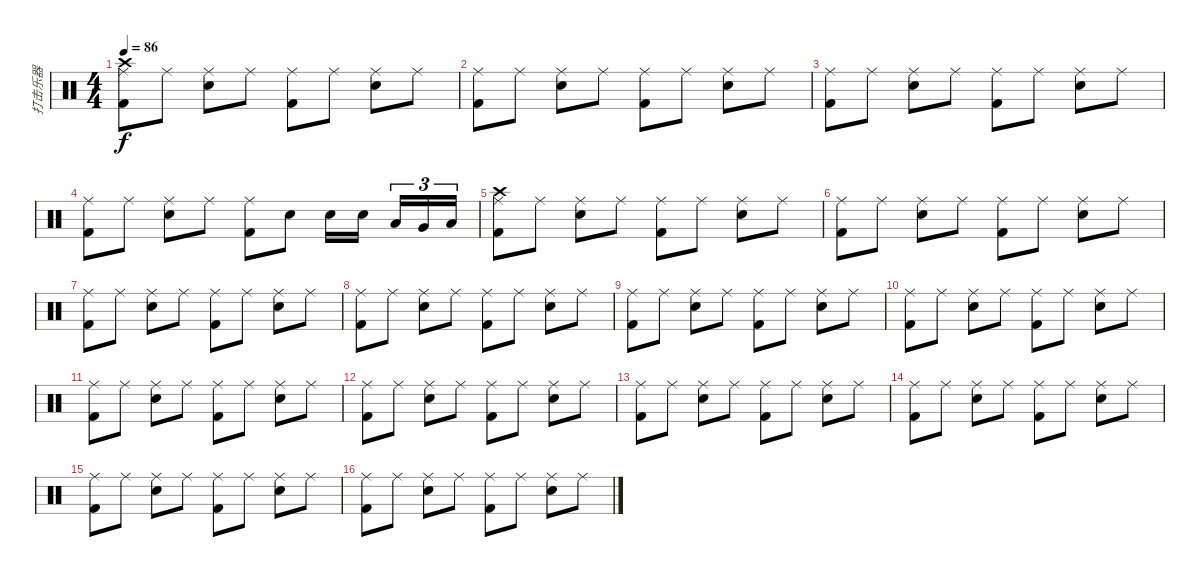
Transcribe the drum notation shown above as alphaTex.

\track ("打击乐器" "打击乐器") {instrument percussion}
\staff {score}
\articulation defaults
\ts (4 4)
\tempo 86
\clef neutral
\ks c
("Ride (middle)" "Kick (hit) 2" "Crash high (hit)").8{dy f} "Ride (middle)".8 ("Ride (middle)" "Snare (hit) 2").8 "Ride (middle)".8 ("Ride (middle)" "Kick (hit) 2").8 "Ride (middle)".8 ("Ride (middle)" "Snare (hit) 2").8 "Ride (middle)".8 |
("Ride (middle)" "Kick (hit) 2").8 "Ride (middle)".8 ("Ride (middle)" "Snare (hit) 2").8 "Ride (middle)".8 ("Ride (middle)" "Kick (hit) 2").8 "Ride (middle)".8 ("Ride (middle)" "Snare (hit) 2").8 "Ride (middle)".8 |
("Ride (middle)" "Kick (hit) 2").8 "Ride (middle)".8 ("Ride (middle)" "Snare (hit) 2").8 "Ride (middle)".8 ("Ride (middle)" "Kick (hit) 2").8 "Ride (middle)".8 ("Ride (middle)" "Snare (hit) 2").8 "Ride (middle)".8 |
("Ride (middle)" "Kick (hit) 2").8 "Ride (middle)".8 ("Ride (middle)" "Snare (hit) 2").8 "Ride (middle)".8 ("Ride (middle)" "Kick (hit) 2").8 "Electric Snare (hit)".8 "Electric Snare (hit)".16 "Electric Snare (hit)".16{beam splitsecondary} "Low Tom (hit)".16{tu (3 2)} "Very Low Tom (hit)".16{tu (3 2)} "Low Floor Tom (hit)".16{tu (3 2)} |
("Ride (middle)" "Kick (hit) 2" "Crash high (hit)").8 "Ride (middle)".8 ("Ride (middle)" "Snare (hit) 2").8 "Ride (middle)".8 ("Ride (middle)" "Kick (hit) 2").8 "Ride (middle)".8 ("Ride (middle)" "Snare (hit) 2").8 "Ride (middle)".8 |
("Ride (middle)" "Kick (hit) 2").8 "Ride (middle)".8 ("Ride (middle)" "Snare (hit) 2").8 "Ride (middle)".8 ("Ride (middle)" "Kick (hit) 2").8 "Ride (middle)".8 ("Ride (middle)" "Snare (hit) 2").8 "Ride (middle)".8 |
("Ride (middle)" "Kick (hit) 2").8 "Ride (middle)".8 ("Ride (middle)" "Snare (hit) 2").8 "Ride (middle)".8 ("Ride (middle)" "Kick (hit) 2").8 "Ride (middle)".8 ("Ride (middle)" "Snare (hit) 2").8 "Ride (middle)".8 |
("Ride (middle)" "Kick (hit) 2").8 "Ride (middle)".8 ("Ride (middle)" "Snare (hit) 2").8 "Ride (middle)".8 ("Ride (middle)" "Kick (hit) 2").8 "Ride (middle)".8 ("Ride (middle)" "Snare (hit) 2").8 "Ride (middle)".8 |
("Ride (middle)" "Kick (hit) 2").8 "Ride (middle)".8 ("Ride (middle)" "Snare (hit) 2").8 "Ride (middle)".8 ("Ride (middle)" "Kick (hit) 2").8 "Ride (middle)".8 ("Ride (middle)" "Snare (hit) 2").8 "Ride (middle)".8 |
("Ride (middle)" "Kick (hit) 2").8 "Ride (middle)".8 ("Ride (middle)" "Snare (hit) 2").8 "Ride (middle)".8 ("Ride (middle)" "Kick (hit) 2").8 "Ride (middle)".8 ("Ride (middle)" "Snare (hit) 2").8 "Ride (middle)".8 |
("Ride (middle)" "Kick (hit) 2").8 "Ride (middle)".8 ("Ride (middle)" "Snare (hit) 2").8 "Ride (middle)".8 ("Ride (middle)" "Kick (hit) 2").8 "Ride (middle)".8 ("Ride (middle)" "Snare (hit) 2").8 "Ride (middle)".8 |
("Ride (middle)" "Kick (hit) 2").8 "Ride (middle)".8 ("Ride (middle)" "Snare (hit) 2").8 "Ride (middle)".8 ("Ride (middle)" "Kick (hit) 2").8 "Ride (middle)".8 ("Ride (middle)" "Snare (hit) 2").8 "Ride (middle)".8 |
("Ride (middle)" "Kick (hit) 2").8 "Ride (middle)".8 ("Ride (middle)" "Snare (hit) 2").8 "Ride (middle)".8 ("Ride (middle)" "Kick (hit) 2").8 "Ride (middle)".8 ("Ride (middle)" "Snare (hit) 2").8 "Ride (middle)".8 |
("Ride (middle)" "Kick (hit) 2").8 "Ride (middle)".8 ("Ride (middle)" "Snare (hit) 2").8 "Ride (middle)".8 ("Ride (middle)" "Kick (hit) 2").8 "Ride (middle)".8 ("Ride (middle)" "Snare (hit) 2").8 "Ride (middle)".8 |
("Ride (middle)" "Kick (hit) 2").8 "Ride (middle)".8 ("Ride (middle)" "Snare (hit) 2").8 "Ride (middle)".8 ("Ride (middle)" "Kick (hit) 2").8 "Ride (middle)".8 ("Ride (middle)" "Snare (hit) 2").8 "Ride (middle)".8 |
("Ride (middle)" "Kick (hit) 2").8 "Ride (middle)".8 ("Ride (middle)" "Snare (hit) 2").8 "Ride (middle)".8 ("Ride (middle)" "Kick (hit) 2").8 "Ride (middle)".8 ("Ride (middle)" "Snare (hit) 2").8 "Ride (middle)".8
